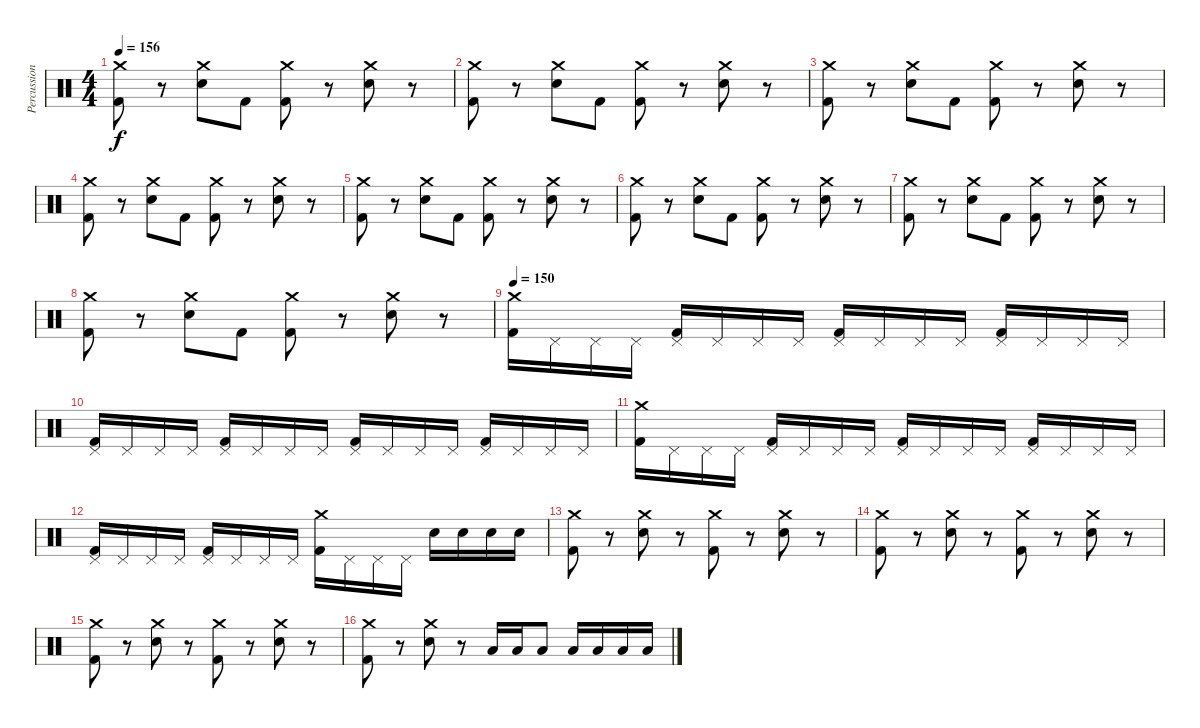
\track ("Percussions" "Percussion") {instrument percussion}
\staff {score}
\articulation defaults
\ts (4 4)
\tempo 156
\clef neutral
\ks c
("Crash medium (hit)" "Kick (hit) 2").8{dy f} r.8 ("Crash medium (hit)" "Electric Snare (hit)").8 "Kick (hit) 2".8 ("Crash medium (hit)" "Kick (hit) 2").8 r.8 ("Crash medium (hit)" "Electric Snare (hit)").8 r.8 |
("Crash medium (hit)" "Kick (hit) 2").8 r.8 ("Crash medium (hit)" "Electric Snare (hit)").8 "Kick (hit) 2".8 ("Crash medium (hit)" "Kick (hit) 2").8 r.8 ("Crash medium (hit)" "Electric Snare (hit)").8 r.8 |
("Crash medium (hit)" "Kick (hit) 2").8 r.8 ("Crash medium (hit)" "Electric Snare (hit)").8 "Kick (hit) 2".8 ("Crash medium (hit)" "Kick (hit) 2").8 r.8 ("Crash medium (hit)" "Electric Snare (hit)").8 r.8 |
("Crash medium (hit)" "Kick (hit) 2").8 r.8 ("Crash medium (hit)" "Electric Snare (hit)").8 "Kick (hit) 2".8 ("Crash medium (hit)" "Kick (hit) 2").8 r.8 ("Crash medium (hit)" "Electric Snare (hit)").8 r.8 |
("Crash medium (hit)" "Kick (hit) 2").8 r.8 ("Crash medium (hit)" "Electric Snare (hit)").8 "Kick (hit) 2".8 ("Crash medium (hit)" "Kick (hit) 2").8 r.8 ("Crash medium (hit)" "Electric Snare (hit)").8 r.8 |
("Crash medium (hit)" "Kick (hit) 2").8 r.8 ("Crash medium (hit)" "Electric Snare (hit)").8 "Kick (hit) 2".8 ("Crash medium (hit)" "Kick (hit) 2").8 r.8 ("Crash medium (hit)" "Electric Snare (hit)").8 r.8 |
("Crash medium (hit)" "Kick (hit) 2").8 r.8 ("Crash medium (hit)" "Electric Snare (hit)").8 "Kick (hit) 2".8 ("Crash medium (hit)" "Kick (hit) 2").8 r.8 ("Crash medium (hit)" "Electric Snare (hit)").8 r.8 |
("Crash medium (hit)" "Kick (hit) 2").8 r.8 ("Crash medium (hit)" "Electric Snare (hit)").8 "Kick (hit) 2".8 ("Crash medium (hit)" "Kick (hit) 2").8 r.8 ("Crash medium (hit)" "Electric Snare (hit)").8 r.8 |
\tempo 150
("Crash medium (hit)" "Kick (hit) 2").16 "Pedal Hi-Hat (hit)".16 "Pedal Hi-Hat (hit)".16 "Pedal Hi-Hat (hit)".16 ("Pedal Hi-Hat (hit)" "Kick (hit) 2").16 "Pedal Hi-Hat (hit)".16 "Pedal Hi-Hat (hit)".16 "Pedal Hi-Hat (hit)".16 ("Pedal Hi-Hat (hit)" "Kick (hit) 2").16 "Pedal Hi-Hat (hit)".16 "Pedal Hi-Hat (hit)".16 "Pedal Hi-Hat (hit)".16 ("Pedal Hi-Hat (hit)" "Kick (hit) 2").16 "Pedal Hi-Hat (hit)".16 "Pedal Hi-Hat (hit)".16 "Pedal Hi-Hat (hit)".16 |
("Pedal Hi-Hat (hit)" "Kick (hit) 2").16 "Pedal Hi-Hat (hit)".16 "Pedal Hi-Hat (hit)".16 "Pedal Hi-Hat (hit)".16 ("Pedal Hi-Hat (hit)" "Kick (hit) 2").16 "Pedal Hi-Hat (hit)".16 "Pedal Hi-Hat (hit)".16 "Pedal Hi-Hat (hit)".16 ("Pedal Hi-Hat (hit)" "Kick (hit) 2").16 "Pedal Hi-Hat (hit)".16 "Pedal Hi-Hat (hit)".16 "Pedal Hi-Hat (hit)".16 ("Pedal Hi-Hat (hit)" "Kick (hit) 2").16 "Pedal Hi-Hat (hit)".16 "Pedal Hi-Hat (hit)".16 "Pedal Hi-Hat (hit)".16 |
("Crash medium (hit)" "Kick (hit) 2").16 "Pedal Hi-Hat (hit)".16 "Pedal Hi-Hat (hit)".16 "Pedal Hi-Hat (hit)".16 ("Pedal Hi-Hat (hit)" "Kick (hit) 2").16 "Pedal Hi-Hat (hit)".16 "Pedal Hi-Hat (hit)".16 "Pedal Hi-Hat (hit)".16 ("Pedal Hi-Hat (hit)" "Kick (hit) 2").16 "Pedal Hi-Hat (hit)".16 "Pedal Hi-Hat (hit)".16 "Pedal Hi-Hat (hit)".16 ("Pedal Hi-Hat (hit)" "Kick (hit) 2").16 "Pedal Hi-Hat (hit)".16 "Pedal Hi-Hat (hit)".16 "Pedal Hi-Hat (hit)".16 |
("Pedal Hi-Hat (hit)" "Kick (hit) 2").16 "Pedal Hi-Hat (hit)".16 "Pedal Hi-Hat (hit)".16 "Pedal Hi-Hat (hit)".16 ("Pedal Hi-Hat (hit)" "Kick (hit) 2").16 "Pedal Hi-Hat (hit)".16 "Pedal Hi-Hat (hit)".16 "Pedal Hi-Hat (hit)".16 ("Crash medium (hit)" "Kick (hit) 2").16 "Pedal Hi-Hat (hit)".16 "Pedal Hi-Hat (hit)".16 "Pedal Hi-Hat (hit)".16 "Electric Snare (hit)".16 "Electric Snare (hit)".16 "Electric Snare (hit)".16 "Electric Snare (hit)".16 |
("Crash medium (hit)" "Kick (hit) 2").8 r.8 ("Crash medium (hit)" "Electric Snare (hit)").8 r.8 ("Crash medium (hit)" "Kick (hit) 2").8 r.8 ("Crash medium (hit)" "Electric Snare (hit)").8 r.8 |
("Crash medium (hit)" "Kick (hit) 2").8 r.8 ("Crash medium (hit)" "Electric Snare (hit)").8 r.8 ("Crash medium (hit)" "Kick (hit) 2").8 r.8 ("Crash medium (hit)" "Electric Snare (hit)").8 r.8 |
("Crash medium (hit)" "Kick (hit) 2").8 r.8 ("Crash medium (hit)" "Electric Snare (hit)").8 r.8 ("Crash medium (hit)" "Kick (hit) 2").8 r.8 ("Crash medium (hit)" "Electric Snare (hit)").8 r.8 |
("Crash medium (hit)" "Kick (hit) 2").8 r.8 ("Crash medium (hit)" "Electric Snare (hit)").8 r.8 "Low Tom (hit)".16 "Low Tom (hit)".16 "Low Tom (hit)".8 "Low Tom (hit)".16 "Low Tom (hit)".16 "Low Tom (hit)".16 "Low Tom (hit)".16
